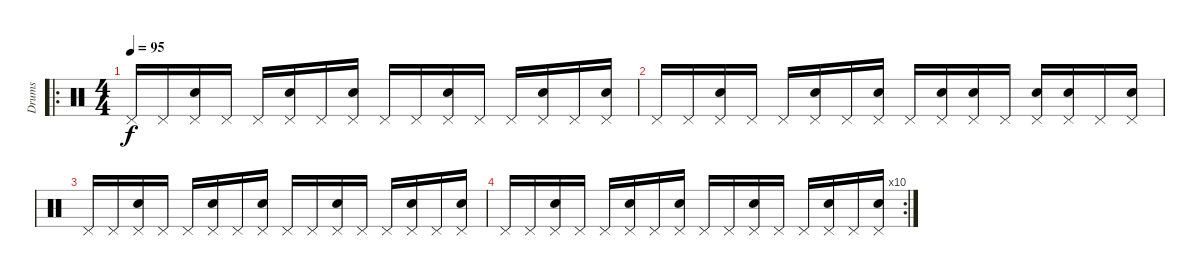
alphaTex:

\track ("Drums" "Drums") {instrument percussion}
\staff {score}
\articulation defaults
\ro
\ts (4 4)
\tempo 95
\clef neutral
\ks c "Pedal Hi-Hat (hit)".16{dy f} "Pedal Hi-Hat (hit)".16
("Pedal Hi-Hat (hit)" "Electric Snare (hit)").16 "Pedal Hi-Hat (hit)".16 "Pedal Hi-Hat (hit)".16 ("Pedal Hi-Hat (hit)" "Electric Snare (hit)").16 "Pedal Hi-Hat (hit)".16 ("Pedal Hi-Hat (hit)" "Electric Snare (hit)").16 "Pedal Hi-Hat (hit)".16 "Pedal Hi-Hat (hit)".16 ("Pedal Hi-Hat (hit)" "Electric Snare (hit)").16 "Pedal Hi-Hat (hit)".16 "Pedal Hi-Hat (hit)".16 ("Pedal Hi-Hat (hit)" "Electric Snare (hit)").16 "Pedal Hi-Hat (hit)".16 ("Pedal Hi-Hat (hit)" "Electric Snare (hit)").16 |
"Pedal Hi-Hat (hit)".16 "Pedal Hi-Hat (hit)".16 ("Pedal Hi-Hat (hit)" "Electric Snare (hit)").16 "Pedal Hi-Hat (hit)".16 "Pedal Hi-Hat (hit)".16 ("Pedal Hi-Hat (hit)" "Electric Snare (hit)").16 "Pedal Hi-Hat (hit)".16 ("Pedal Hi-Hat (hit)" "Electric Snare (hit)").16 "Pedal Hi-Hat (hit)".16 ("Pedal Hi-Hat (hit)" "Electric Snare (hit)").16 ("Pedal Hi-Hat (hit)" "Electric Snare (hit)").16 "Pedal Hi-Hat (hit)".16 ("Pedal Hi-Hat (hit)" "Electric Snare (hit)").16 ("Pedal Hi-Hat (hit)" "Electric Snare (hit)").16 "Pedal Hi-Hat (hit)".16 ("Pedal Hi-Hat (hit)" "Electric Snare (hit)").16 |
"Pedal Hi-Hat (hit)".16 "Pedal Hi-Hat (hit)".16 ("Pedal Hi-Hat (hit)" "Electric Snare (hit)").16 "Pedal Hi-Hat (hit)".16 "Pedal Hi-Hat (hit)".16 ("Pedal Hi-Hat (hit)" "Electric Snare (hit)").16 "Pedal Hi-Hat (hit)".16 ("Pedal Hi-Hat (hit)" "Electric Snare (hit)").16 "Pedal Hi-Hat (hit)".16 "Pedal Hi-Hat (hit)".16 ("Pedal Hi-Hat (hit)" "Electric Snare (hit)").16 "Pedal Hi-Hat (hit)".16 "Pedal Hi-Hat (hit)".16 ("Pedal Hi-Hat (hit)" "Electric Snare (hit)").16 "Pedal Hi-Hat (hit)".16 ("Pedal Hi-Hat (hit)" "Electric Snare (hit)").16 |
\rc 10 "Pedal Hi-Hat (hit)".16 "Pedal Hi-Hat (hit)".16
("Pedal Hi-Hat (hit)" "Electric Snare (hit)").16 "Pedal Hi-Hat (hit)".16 "Pedal Hi-Hat (hit)".16 ("Pedal Hi-Hat (hit)" "Electric Snare (hit)").16 "Pedal Hi-Hat (hit)".16 ("Pedal Hi-Hat (hit)" "Electric Snare (hit)").16 "Pedal Hi-Hat (hit)".16 "Pedal Hi-Hat (hit)".16 ("Pedal Hi-Hat (hit)" "Electric Snare (hit)").16 "Pedal Hi-Hat (hit)".16 "Pedal Hi-Hat (hit)".16 ("Pedal Hi-Hat (hit)" "Electric Snare (hit)").16 "Pedal Hi-Hat (hit)".16 ("Pedal Hi-Hat (hit)" "Electric Snare (hit)").16
